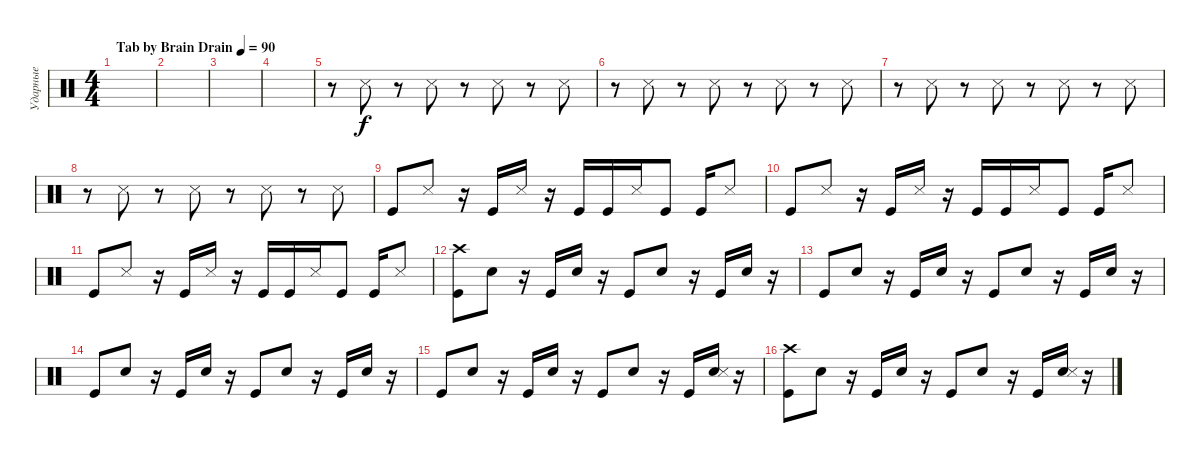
\track ("Ударные" "Ударные") {instrument percussion}
\staff {score}
\articulation defaults
\ts (4 4)
\tempo (90 "Tab by Brain Drain")
\clef neutral
\ks c
|
|
|
|
r.8 "Snare (side stick) 3".8 r.8 "Snare (side stick) 3".8 r.8 "Snare (side stick) 3".8 r.8 "Snare (side stick) 3".8 |
r.8 "Snare (side stick) 3".8 r.8 "Snare (side stick) 3".8 r.8 "Snare (side stick) 3".8 r.8 "Snare (side stick) 3".8 |
r.8 "Snare (side stick) 3".8 r.8 "Snare (side stick) 3".8 r.8 "Snare (side stick) 3".8 r.8 "Snare (side stick) 3".8 |
r.8 "Snare (side stick) 3".8 r.8 "Snare (side stick) 3".8 r.8 "Snare (side stick) 3".8 r.8 "Snare (side stick) 3".8 |
"Kick (hit)".8 "Snare (side stick) 3".8 r.16 "Kick (hit)".16 "Snare (side stick) 3".16 r.16 "Kick (hit)".16 "Kick (hit)".16 "Snare (side stick) 3".16 "Kick (hit)".8 "Kick (hit)".16 "Snare (side stick) 3".8 |
"Kick (hit)".8 "Snare (side stick) 3".8 r.16 "Kick (hit)".16 "Snare (side stick) 3".16 r.16 "Kick (hit)".16 "Kick (hit)".16 "Snare (side stick) 3".16 "Kick (hit)".8 "Kick (hit)".16 "Snare (side stick) 3".8 |
"Kick (hit)".8 "Snare (side stick) 3".8 r.16 "Kick (hit)".16 "Snare (side stick) 3".16 r.16 "Kick (hit)".16 "Kick (hit)".16 "Snare (side stick) 3".16 "Kick (hit)".8 "Kick (hit)".16 "Snare (side stick) 3".8 |
("Kick (hit)" "Crash high (hit)").8 "Snare (hit) 2".8 r.16 "Kick (hit)".16 "Snare (hit) 2".16 r.16 "Kick (hit)".8 "Snare (hit) 2".8 r.16 "Kick (hit)".16 "Snare (hit) 2".16 r.16 |
"Kick (hit)".8 "Snare (hit) 2".8 r.16 "Kick (hit)".16 "Snare (hit) 2".16 r.16 "Kick (hit)".8 "Snare (hit) 2".8 r.16 "Kick (hit)".16 "Snare (hit) 2".16 r.16 |
"Kick (hit)".8 "Snare (hit) 2".8 r.16 "Kick (hit)".16 "Snare (hit) 2".16 r.16 "Kick (hit)".8 "Snare (hit) 2".8 r.16 "Kick (hit)".16 "Snare (hit) 2".16 r.16 |
"Kick (hit)".8 "Snare (hit) 2".8 r.16 "Kick (hit)".16 "Snare (hit) 2".16 r.16 "Kick (hit)".8 "Snare (hit) 2".8 r.16 "Kick (hit)".16 ("Snare (hit) 2" "Snare (side stick) 3").16 r.16 |
("Kick (hit)" "Crash high (hit)").8 "Snare (hit) 2".8 r.16 "Kick (hit)".16 "Snare (hit) 2".16 r.16 "Kick (hit)".8 "Snare (hit) 2".8 r.16 "Kick (hit)".16 ("Snare (hit) 2" "Snare (side stick) 3").16 r.16
